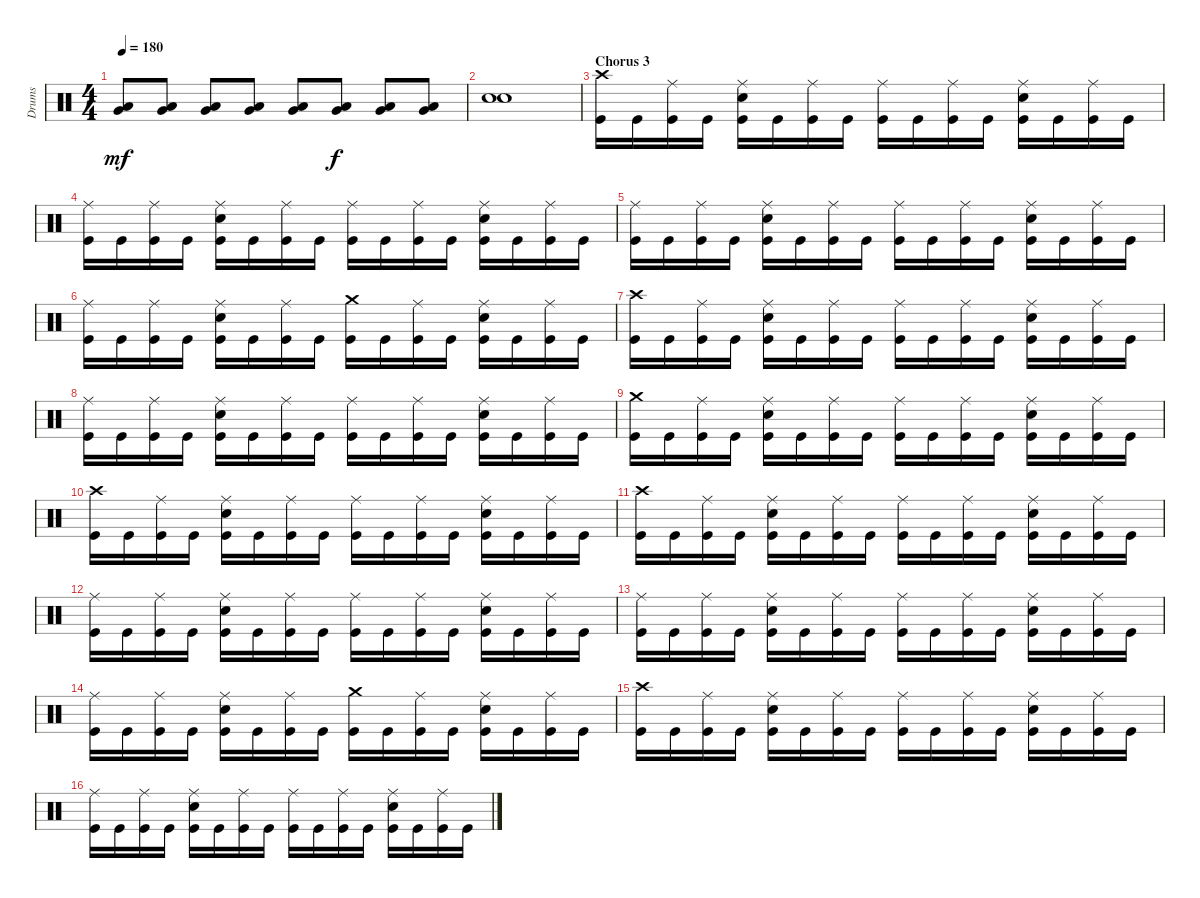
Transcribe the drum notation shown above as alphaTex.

\track ("Drums" "Drums") {instrument percussion}
\staff {score}
\articulation defaults
\ts (4 4)
\tempo 180
\clef neutral
\ks c
("Very Low Tom (hit)" "Low Floor Tom (hit)").8{dy mf} ("Very Low Tom (hit)" "Low Floor Tom (hit)").8 ("Very Low Tom (hit)" "Low Floor Tom (hit)").8 ("Very Low Tom (hit)" "Low Floor Tom (hit)").8 ("Very Low Tom (hit)" "Low Floor Tom (hit)").8 ("Very Low Tom (hit)" "Low Floor Tom (hit)").8{dy f} ("Very Low Tom (hit)" "Low Floor Tom (hit)").8 ("Very Low Tom (hit)" "Low Floor Tom (hit)").8 |
("Electric Snare (hit)" "Snare (hit) 2").1 |
\section ("" "Chorus 3")
("Crash high (hit)" "Kick (hit)").16 "Kick (hit)".16 ("Ride (middle)" "Kick (hit)").16 "Kick (hit)".16 ("Ride (middle)" "Snare (hit) 2" "Kick (hit)").16 "Kick (hit)".16 ("Ride (middle)" "Kick (hit)").16 "Kick (hit)".16 ("Ride (middle)" "Kick (hit)").16 "Kick (hit)".16 ("Ride (middle)" "Kick (hit)").16 "Kick (hit)".16 ("Ride (middle)" "Snare (hit) 2" "Kick (hit)").16 "Kick (hit)".16 ("Ride (middle)" "Kick (hit)").16 "Kick (hit)".16 |
("Ride (middle)" "Kick (hit)").16 "Kick (hit)".16 ("Ride (middle)" "Kick (hit)").16 "Kick (hit)".16 ("Ride (middle)" "Snare (hit) 2" "Kick (hit)").16 "Kick (hit)".16 ("Ride (middle)" "Kick (hit)").16 "Kick (hit)".16 ("Ride (middle)" "Kick (hit)").16 "Kick (hit)".16 ("Ride (middle)" "Kick (hit)").16 "Kick (hit)".16 ("Ride (middle)" "Snare (hit) 2" "Kick (hit)").16 "Kick (hit)".16 ("Ride (middle)" "Kick (hit)").16 "Kick (hit)".16 |
("Ride (middle)" "Kick (hit)").16 "Kick (hit)".16 ("Ride (middle)" "Kick (hit)").16 "Kick (hit)".16 ("Ride (middle)" "Snare (hit) 2" "Kick (hit)").16 "Kick (hit)".16 ("Ride (middle)" "Kick (hit)").16 "Kick (hit)".16 ("Ride (middle)" "Kick (hit)").16 "Kick (hit)".16 ("Ride (middle)" "Kick (hit)").16 "Kick (hit)".16 ("Ride (middle)" "Snare (hit) 2" "Kick (hit)").16 "Kick (hit)".16 ("Ride (middle)" "Kick (hit)").16 "Kick (hit)".16 |
("Ride (middle)" "Kick (hit)").16 "Kick (hit)".16 ("Ride (middle)" "Kick (hit)").16 "Kick (hit)".16 ("Ride (middle)" "Snare (hit) 2" "Kick (hit)").16 "Kick (hit)".16 ("Ride (middle)" "Kick (hit)").16 "Kick (hit)".16 ("Crash medium (hit)" "Kick (hit)").16 "Kick (hit)".16 ("Ride (middle)" "Kick (hit)").16 "Kick (hit)".16 ("Ride (middle)" "Snare (hit) 2" "Kick (hit)").16 "Kick (hit)".16 ("Ride (middle)" "Kick (hit)").16 "Kick (hit)".16 |
("Crash high (hit)" "Kick (hit)").16 "Kick (hit)".16 ("Ride (middle)" "Kick (hit)").16 "Kick (hit)".16 ("Ride (middle)" "Snare (hit) 2" "Kick (hit)").16 "Kick (hit)".16 ("Ride (middle)" "Kick (hit)").16 "Kick (hit)".16 ("Ride (middle)" "Kick (hit)").16 "Kick (hit)".16 ("Ride (middle)" "Kick (hit)").16 "Kick (hit)".16 ("Ride (middle)" "Snare (hit) 2" "Kick (hit)").16 "Kick (hit)".16 ("Ride (middle)" "Kick (hit)").16 "Kick (hit)".16 |
("Ride (middle)" "Kick (hit)").16 "Kick (hit)".16 ("Ride (middle)" "Kick (hit)").16 "Kick (hit)".16 ("Ride (middle)" "Snare (hit) 2" "Kick (hit)").16 "Kick (hit)".16 ("Ride (middle)" "Kick (hit)").16 "Kick (hit)".16 ("Ride (middle)" "Kick (hit)").16 "Kick (hit)".16 ("Ride (middle)" "Kick (hit)").16 "Kick (hit)".16 ("Ride (middle)" "Snare (hit) 2" "Kick (hit)").16 "Kick (hit)".16 ("Ride (middle)" "Kick (hit)").16 "Kick (hit)".16 |
("Crash medium (hit)" "Kick (hit)").16 "Kick (hit)".16 ("Ride (middle)" "Kick (hit)").16 "Kick (hit)".16 ("Ride (middle)" "Snare (hit) 2" "Kick (hit)").16 "Kick (hit)".16 ("Ride (middle)" "Kick (hit)").16 "Kick (hit)".16 ("Ride (middle)" "Kick (hit)").16 "Kick (hit)".16 ("Ride (middle)" "Kick (hit)").16 "Kick (hit)".16 ("Ride (middle)" "Snare (hit) 2" "Kick (hit)").16 "Kick (hit)".16 ("Ride (middle)" "Kick (hit)").16 "Kick (hit)".16 |
("Crash high (hit)" "Kick (hit)").16 "Kick (hit)".16 ("Ride (middle)" "Kick (hit)").16 "Kick (hit)".16 ("Ride (middle)" "Snare (hit) 2" "Kick (hit)").16 "Kick (hit)".16 ("Ride (middle)" "Kick (hit)").16 "Kick (hit)".16 ("Ride (middle)" "Kick (hit)").16 "Kick (hit)".16 ("Ride (middle)" "Kick (hit)").16 "Kick (hit)".16 ("Ride (middle)" "Snare (hit) 2" "Kick (hit)").16 "Kick (hit)".16 ("Ride (middle)" "Kick (hit)").16 "Kick (hit)".16 |
("Crash high (hit)" "Kick (hit)").16 "Kick (hit)".16 ("Ride (middle)" "Kick (hit)").16 "Kick (hit)".16 ("Ride (middle)" "Snare (hit) 2" "Kick (hit)").16 "Kick (hit)".16 ("Ride (middle)" "Kick (hit)").16 "Kick (hit)".16 ("Ride (middle)" "Kick (hit)").16 "Kick (hit)".16 ("Ride (middle)" "Kick (hit)").16 "Kick (hit)".16 ("Ride (middle)" "Snare (hit) 2" "Kick (hit)").16 "Kick (hit)".16 ("Ride (middle)" "Kick (hit)").16 "Kick (hit)".16 |
("Ride (middle)" "Kick (hit)").16 "Kick (hit)".16 ("Ride (middle)" "Kick (hit)").16 "Kick (hit)".16 ("Ride (middle)" "Snare (hit) 2" "Kick (hit)").16 "Kick (hit)".16 ("Ride (middle)" "Kick (hit)").16 "Kick (hit)".16 ("Ride (middle)" "Kick (hit)").16 "Kick (hit)".16 ("Ride (middle)" "Kick (hit)").16 "Kick (hit)".16 ("Ride (middle)" "Snare (hit) 2" "Kick (hit)").16 "Kick (hit)".16 ("Ride (middle)" "Kick (hit)").16 "Kick (hit)".16 |
("Ride (middle)" "Kick (hit)").16 "Kick (hit)".16 ("Ride (middle)" "Kick (hit)").16 "Kick (hit)".16 ("Ride (middle)" "Snare (hit) 2" "Kick (hit)").16 "Kick (hit)".16 ("Ride (middle)" "Kick (hit)").16 "Kick (hit)".16 ("Ride (middle)" "Kick (hit)").16 "Kick (hit)".16 ("Ride (middle)" "Kick (hit)").16 "Kick (hit)".16 ("Ride (middle)" "Snare (hit) 2" "Kick (hit)").16 "Kick (hit)".16 ("Ride (middle)" "Kick (hit)").16 "Kick (hit)".16 |
("Ride (middle)" "Kick (hit)").16 "Kick (hit)".16 ("Ride (middle)" "Kick (hit)").16 "Kick (hit)".16 ("Ride (middle)" "Snare (hit) 2" "Kick (hit)").16 "Kick (hit)".16 ("Ride (middle)" "Kick (hit)").16 "Kick (hit)".16 ("Crash medium (hit)" "Kick (hit)").16 "Kick (hit)".16 ("Ride (middle)" "Kick (hit)").16 "Kick (hit)".16 ("Ride (middle)" "Snare (hit) 2" "Kick (hit)").16 "Kick (hit)".16 ("Ride (middle)" "Kick (hit)").16 "Kick (hit)".16 |
("Crash high (hit)" "Kick (hit)").16 "Kick (hit)".16 ("Ride (middle)" "Kick (hit)").16 "Kick (hit)".16 ("Ride (middle)" "Snare (hit) 2" "Kick (hit)").16 "Kick (hit)".16 ("Ride (middle)" "Kick (hit)").16 "Kick (hit)".16 ("Ride (middle)" "Kick (hit)").16 "Kick (hit)".16 ("Ride (middle)" "Kick (hit)").16 "Kick (hit)".16 ("Ride (middle)" "Snare (hit) 2" "Kick (hit)").16 "Kick (hit)".16 ("Ride (middle)" "Kick (hit)").16 "Kick (hit)".16 |
("Ride (middle)" "Kick (hit)").16 "Kick (hit)".16 ("Ride (middle)" "Kick (hit)").16 "Kick (hit)".16 ("Ride (middle)" "Snare (hit) 2" "Kick (hit)").16 "Kick (hit)".16 ("Ride (middle)" "Kick (hit)").16 "Kick (hit)".16 ("Ride (middle)" "Kick (hit)").16 "Kick (hit)".16 ("Ride (middle)" "Kick (hit)").16 "Kick (hit)".16 ("Ride (middle)" "Snare (hit) 2" "Kick (hit)").16 "Kick (hit)".16 ("Ride (middle)" "Kick (hit)").16 "Kick (hit)".16
